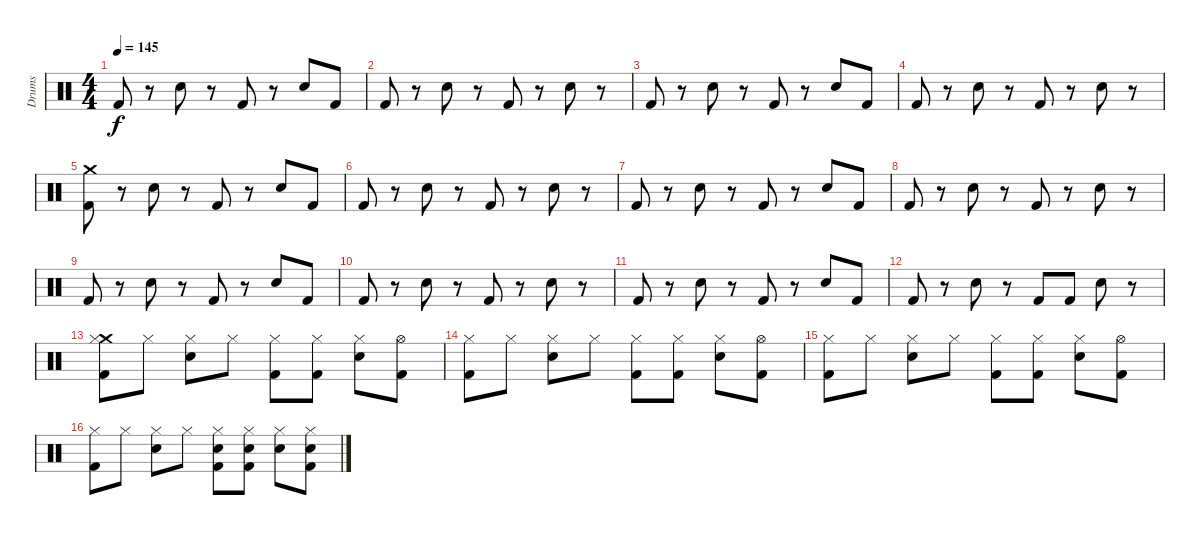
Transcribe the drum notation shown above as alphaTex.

\track ("Drums" "Drums") {instrument percussion}
\staff {score}
\articulation defaults
\ts (4 4)
\tempo 145
\clef neutral
\ks c "Kick (hit) 2".8{dy f}
r.8 "Electric Snare (hit)".8 r.8 "Kick (hit) 2".8 r.8 "Electric Snare (hit)".8 "Kick (hit) 2".8 |
"Kick (hit) 2".8 r.8 "Electric Snare (hit)".8 r.8 "Kick (hit) 2".8 r.8 "Electric Snare (hit)".8 r.8 |
"Kick (hit) 2".8 r.8 "Electric Snare (hit)".8 r.8 "Kick (hit) 2".8 r.8 "Electric Snare (hit)".8 "Kick (hit) 2".8 |
"Kick (hit) 2".8 r.8 "Electric Snare (hit)".8 r.8 "Kick (hit) 2".8 r.8 "Electric Snare (hit)".8 r.8 |
("Crash medium (hit)" "Kick (hit) 2").8 r.8 "Electric Snare (hit)".8 r.8 "Kick (hit) 2".8 r.8 "Electric Snare (hit)".8 "Kick (hit) 2".8 |
"Kick (hit) 2".8 r.8 "Electric Snare (hit)".8 r.8 "Kick (hit) 2".8 r.8 "Electric Snare (hit)".8 r.8 |
"Kick (hit) 2".8 r.8 "Electric Snare (hit)".8 r.8 "Kick (hit) 2".8 r.8 "Electric Snare (hit)".8 "Kick (hit) 2".8 |
"Kick (hit) 2".8 r.8 "Electric Snare (hit)".8 r.8 "Kick (hit) 2".8 r.8 "Electric Snare (hit)".8 r.8 |
"Kick (hit) 2".8 r.8 "Electric Snare (hit)".8 r.8 "Kick (hit) 2".8 r.8 "Electric Snare (hit)".8 "Kick (hit) 2".8 |
"Kick (hit) 2".8 r.8 "Electric Snare (hit)".8 r.8 "Kick (hit) 2".8 r.8 "Electric Snare (hit)".8 r.8 |
"Kick (hit) 2".8 r.8 "Electric Snare (hit)".8 r.8 "Kick (hit) 2".8 r.8 "Electric Snare (hit)".8 "Kick (hit) 2".8 |
"Kick (hit) 2".8 r.8 "Electric Snare (hit)".8 r.8 "Kick (hit) 2".8 "Kick (hit) 2".8 "Electric Snare (hit)".8 r.8 |
("Crash medium (hit)" "Hi-Hat (closed)" "Kick (hit) 2").8 "Hi-Hat (closed)".8 ("Hi-Hat (closed)" "Electric Snare (hit)").8 "Hi-Hat (closed)".8 ("Hi-Hat (closed)" "Kick (hit) 2").8 ("Hi-Hat (closed)" "Kick (hit) 2").8 ("Hi-Hat (closed)" "Electric Snare (hit)").8 ("Hi-Hat (open)" "Kick (hit) 2").8 |
("Hi-Hat (closed)" "Kick (hit) 2").8 "Hi-Hat (closed)".8 ("Hi-Hat (closed)" "Electric Snare (hit)").8 "Hi-Hat (closed)".8 ("Hi-Hat (closed)" "Kick (hit) 2").8 ("Hi-Hat (closed)" "Kick (hit) 2").8 ("Hi-Hat (closed)" "Electric Snare (hit)").8 ("Hi-Hat (open)" "Kick (hit) 2").8 |
("Hi-Hat (closed)" "Kick (hit) 2").8 "Hi-Hat (closed)".8 ("Hi-Hat (closed)" "Electric Snare (hit)").8 "Hi-Hat (closed)".8 ("Hi-Hat (closed)" "Kick (hit) 2").8 ("Hi-Hat (closed)" "Kick (hit) 2").8 ("Hi-Hat (closed)" "Electric Snare (hit)").8 ("Hi-Hat (open)" "Kick (hit) 2").8 |
("Hi-Hat (closed)" "Kick (hit) 2").8 "Hi-Hat (closed)".8 ("Hi-Hat (closed)" "Electric Snare (hit)").8 "Hi-Hat (closed)".8 ("Hi-Hat (closed)" "Electric Snare (hit)" "Kick (hit) 2").8 ("Hi-Hat (closed)" "Electric Snare (hit)" "Kick (hit) 2").8 ("Hi-Hat (closed)" "Electric Snare (hit)").8 ("Hi-Hat (closed)" "Electric Snare (hit)" "Kick (hit) 2").8
